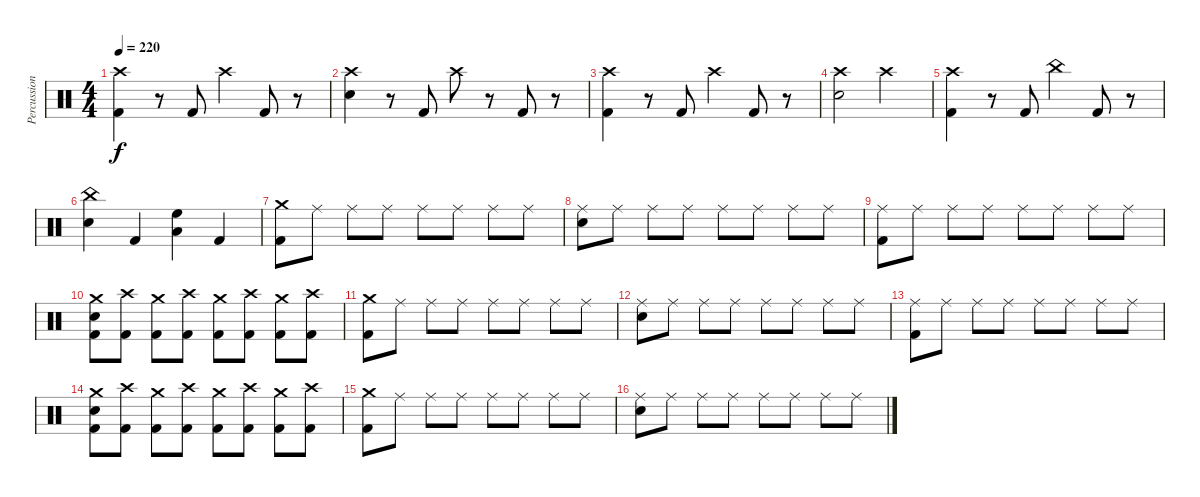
\track ("Percussion" "Percussion") {instrument percussion}
\staff {score}
\articulation defaults
\ts (4 4)
\tempo 220
\clef neutral
\ks c
("Crash high (hit)" "Kick (hit) 2").4{dy f} r.8 "Kick (hit) 2".8 "Crash high (hit)".4 "Kick (hit) 2".8 r.8 |
("Crash high (hit)" "Snare (hit) 2").4 r.8 "Kick (hit) 2".8 "Crash high (hit)".8 r.8 "Kick (hit) 2".8 r.8 |
("Crash high (hit)" "Kick (hit) 2").4 r.8 "Kick (hit) 2".8 "Crash high (hit)".4 "Kick (hit) 2".8 r.8 |
("Crash high (hit)" "Snare (hit) 2").2 "Crash high (hit)".2 |
("Crash high (hit)" "Kick (hit) 2").4 r.8 "Kick (hit) 2".8 "China (hit)".4 "Kick (hit) 2".8 r.8 |
("China (hit)" "Snare (hit) 2").4 "Kick (hit) 2".4 ("High Floor Tom (hit)" "Low Floor Tom (hit)").4 "Kick (hit) 2".4 |
("Crash medium (hit)" "Kick (hit) 2").8 "Ride (middle)".8 "Ride (middle)".8 "Ride (middle)".8 "Ride (middle)".8 "Ride (middle)".8 "Ride (middle)".8 "Ride (middle)".8 |
("Ride (middle)" "Snare (hit) 2").8 "Ride (middle)".8 "Ride (middle)".8 "Ride (middle)".8 "Ride (middle)".8 "Ride (middle)".8 "Ride (middle)".8 "Ride (middle)".8 |
("Ride (middle)" "Kick (hit) 2").8 "Ride (middle)".8 "Ride (middle)".8 "Ride (middle)".8 "Ride (middle)".8 "Ride (middle)".8 "Ride (middle)".8 "Ride (middle)".8 |
("Crash medium (hit)" "Snare (hit) 2" "Kick (hit) 2").8 ("Crash high (hit)" "Kick (hit) 2").8 ("Crash medium (hit)" "Kick (hit) 2").8 ("Crash high (hit)" "Kick (hit) 2").8 ("Crash medium (hit)" "Kick (hit) 2").8 ("Crash high (hit)" "Kick (hit) 2").8 ("Crash medium (hit)" "Kick (hit) 2").8 ("Crash high (hit)" "Kick (hit) 2").8 |
("Crash medium (hit)" "Kick (hit) 2").8 "Ride (middle)".8 "Ride (middle)".8 "Ride (middle)".8 "Ride (middle)".8 "Ride (middle)".8 "Ride (middle)".8 "Ride (middle)".8 |
("Ride (middle)" "Snare (hit) 2").8 "Ride (middle)".8 "Ride (middle)".8 "Ride (middle)".8 "Ride (middle)".8 "Ride (middle)".8 "Ride (middle)".8 "Ride (middle)".8 |
("Ride (middle)" "Kick (hit) 2").8 "Ride (middle)".8 "Ride (middle)".8 "Ride (middle)".8 "Ride (middle)".8 "Ride (middle)".8 "Ride (middle)".8 "Ride (middle)".8 |
("Crash medium (hit)" "Snare (hit) 2" "Kick (hit) 2").8 ("Crash high (hit)" "Kick (hit) 2").8 ("Crash medium (hit)" "Kick (hit) 2").8 ("Crash high (hit)" "Kick (hit) 2").8 ("Crash medium (hit)" "Kick (hit) 2").8 ("Crash high (hit)" "Kick (hit) 2").8 ("Crash medium (hit)" "Kick (hit) 2").8 ("Crash high (hit)" "Kick (hit) 2").8 |
("Crash medium (hit)" "Kick (hit) 2").8 "Ride (middle)".8 "Ride (middle)".8 "Ride (middle)".8 "Ride (middle)".8 "Ride (middle)".8 "Ride (middle)".8 "Ride (middle)".8 |
("Ride (middle)" "Snare (hit) 2").8 "Ride (middle)".8 "Ride (middle)".8 "Ride (middle)".8 "Ride (middle)".8 "Ride (middle)".8 "Ride (middle)".8 "Ride (middle)".8
